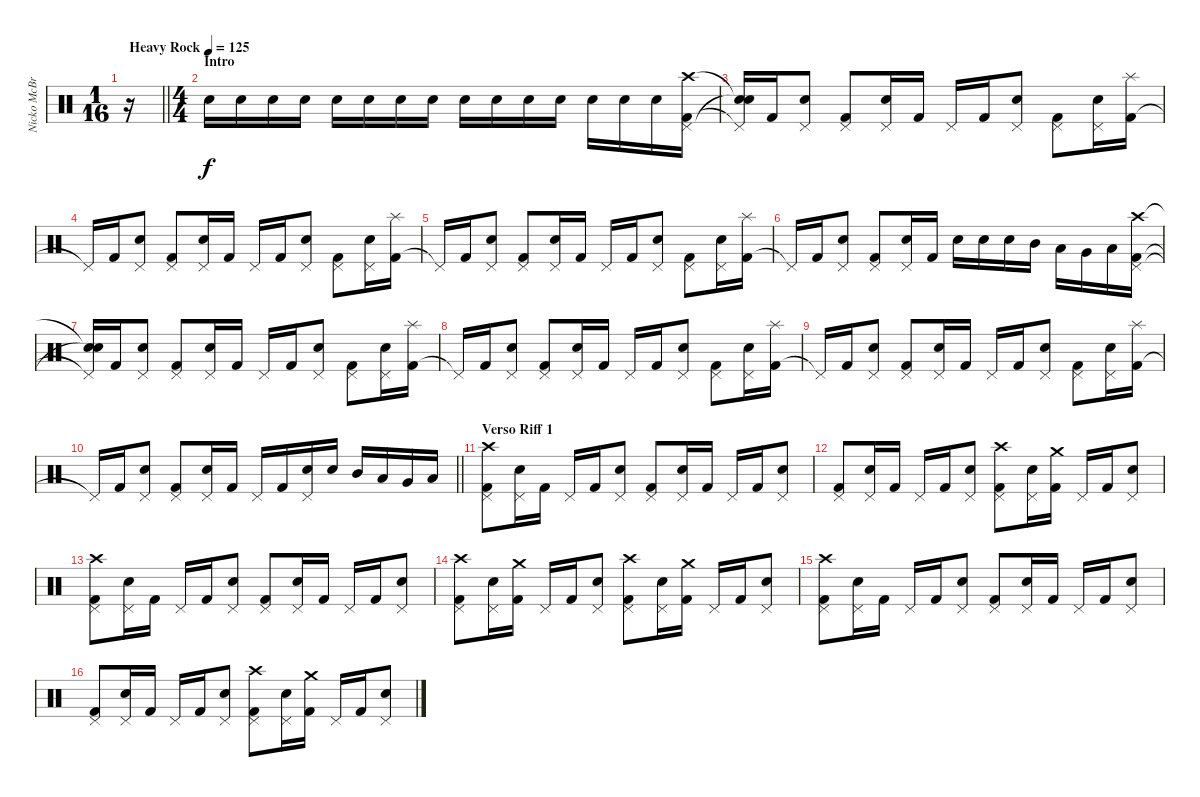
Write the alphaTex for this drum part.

\track ("Nicko McBrain" "Nicko McBr") {instrument percussion}
\staff {score}
\articulation defaults
\ts (1 16)
\tempo (125 "Heavy Rock")
\clef neutral
\barLineRight lightlight
\ks c
r.16{dy f} |
\ts (4 4)
\section ("" "Intro")
"Snare (hit) 2".16 "Snare (hit) 2".16 "Snare (hit) 2".16 "Snare (hit) 2".16 "Snare (hit) 2".16 "Snare (hit) 2".16 "Snare (hit) 2".16 "Snare (hit) 2".16 "Snare (hit) 2".16 "Snare (hit) 2".16 "Snare (hit) 2".16 "Snare (hit) 2".16 "Snare (hit) 2".16 "Snare (hit) 2".16 "Snare (hit) 2".16 ("Kick (hit) 2" "Pedal Hi-Hat (hit)" "Crash high (hit)").16 |
("Pedal Hi-Hat (hit)"{t} "Snare (hit)"{t} "Snare (hit)"{t}).16 "Kick (hit) 2".16 ("Snare (hit) 2" "Pedal Hi-Hat (hit)").8 ("Kick (hit) 2" "Pedal Hi-Hat (hit)").8 ("Snare (hit) 2" "Pedal Hi-Hat (hit)").16 "Kick (hit) 2".16 "Pedal Hi-Hat (hit)".16 "Kick (hit) 2".16 ("Snare (hit) 2" "Pedal Hi-Hat (hit)").8 ("Kick (hit) 2" "Pedal Hi-Hat (hit)").8 ("Snare (hit) 2" "Pedal Hi-Hat (hit)").16 ("Kick (hit) 2" "Splash (hit)").16 |
"Pedal Hi-Hat (hit)"{t}.16 "Kick (hit) 2".16 ("Snare (hit) 2" "Pedal Hi-Hat (hit)").8 ("Kick (hit) 2" "Pedal Hi-Hat (hit)").8 ("Snare (hit) 2" "Pedal Hi-Hat (hit)").16 "Kick (hit) 2".16 "Pedal Hi-Hat (hit)".16 "Kick (hit) 2".16 ("Snare (hit) 2" "Pedal Hi-Hat (hit)").8 ("Kick (hit) 2" "Pedal Hi-Hat (hit)").8 ("Snare (hit) 2" "Pedal Hi-Hat (hit)").16 ("Kick (hit) 2" "Splash (hit)").16 |
"Pedal Hi-Hat (hit)"{t}.16 "Kick (hit) 2".16 ("Snare (hit) 2" "Pedal Hi-Hat (hit)").8 ("Kick (hit) 2" "Pedal Hi-Hat (hit)").8 ("Snare (hit) 2" "Pedal Hi-Hat (hit)").16 "Kick (hit) 2".16 "Pedal Hi-Hat (hit)".16 "Kick (hit) 2".16 ("Snare (hit) 2" "Pedal Hi-Hat (hit)").8 ("Kick (hit) 2" "Pedal Hi-Hat (hit)").8 ("Snare (hit) 2" "Pedal Hi-Hat (hit)").16 ("Kick (hit) 2" "Splash (hit)").16 |
"Pedal Hi-Hat (hit)"{t}.16 "Kick (hit) 2".16 ("Snare (hit) 2" "Pedal Hi-Hat (hit)").8 ("Kick (hit) 2" "Pedal Hi-Hat (hit)").8 ("Snare (hit) 2" "Pedal Hi-Hat (hit)").16 "Kick (hit) 2".16 "Snare (hit) 2".16 "Snare (hit) 2".16 "Snare (hit) 2".16 "Mid Tom (hit)".16 "Low Tom (hit)".16 "Very Low Tom (hit)".16 "Low Floor Tom (hit)".16 ("Kick (hit) 2" "Pedal Hi-Hat (hit)" "Crash high (hit)").16 |
("Pedal Hi-Hat (hit)"{t} "Snare (hit)"{t} "Snare (hit)"{t}).16 "Kick (hit) 2".16 ("Snare (hit) 2" "Pedal Hi-Hat (hit)").8 ("Kick (hit) 2" "Pedal Hi-Hat (hit)").8 ("Snare (hit) 2" "Pedal Hi-Hat (hit)").16 "Kick (hit) 2".16 "Pedal Hi-Hat (hit)".16 "Kick (hit) 2".16 ("Snare (hit) 2" "Pedal Hi-Hat (hit)").8 ("Kick (hit) 2" "Pedal Hi-Hat (hit)").8 ("Snare (hit) 2" "Pedal Hi-Hat (hit)").16 ("Kick (hit) 2" "Splash (hit)").16 |
"Pedal Hi-Hat (hit)"{t}.16 "Kick (hit) 2".16 ("Snare (hit) 2" "Pedal Hi-Hat (hit)").8 ("Kick (hit) 2" "Pedal Hi-Hat (hit)").8 ("Snare (hit) 2" "Pedal Hi-Hat (hit)").16 "Kick (hit) 2".16 "Pedal Hi-Hat (hit)".16 "Kick (hit) 2".16 ("Snare (hit) 2" "Pedal Hi-Hat (hit)").8 ("Kick (hit) 2" "Pedal Hi-Hat (hit)").8 ("Snare (hit) 2" "Pedal Hi-Hat (hit)").16 ("Kick (hit) 2" "Splash (hit)").16 |
"Pedal Hi-Hat (hit)"{t}.16 "Kick (hit) 2".16 ("Snare (hit) 2" "Pedal Hi-Hat (hit)").8 ("Kick (hit) 2" "Pedal Hi-Hat (hit)").8 ("Snare (hit) 2" "Pedal Hi-Hat (hit)").16 "Kick (hit) 2".16 "Pedal Hi-Hat (hit)".16 "Kick (hit) 2".16 ("Snare (hit) 2" "Pedal Hi-Hat (hit)").8 ("Kick (hit) 2" "Pedal Hi-Hat (hit)").8 ("Snare (hit) 2" "Pedal Hi-Hat (hit)").16 ("Kick (hit) 2" "Splash (hit)").16 |
\barLineRight lightlight "Pedal Hi-Hat (hit)"{t}.16 "Kick (hit) 2".16
("Snare (hit) 2" "Pedal Hi-Hat (hit)").8 ("Kick (hit) 2" "Pedal Hi-Hat (hit)").8 ("Snare (hit) 2" "Pedal Hi-Hat (hit)").16 "Kick (hit) 2".16 "Pedal Hi-Hat (hit)".16 "Kick (hit) 2".16 ("Snare (hit) 2" "Pedal Hi-Hat (hit)").16 "Snare (hit) 2".16 "Mid Tom (hit)".16 "Low Tom (hit)".16 "Very Low Tom (hit)".16 "Low Floor Tom (hit)".16 |
\section ("" "Verso Riff 1")
("Kick (hit) 2" "Pedal Hi-Hat (hit)" "Crash high (hit)").8 ("Snare (hit) 2" "Pedal Hi-Hat (hit)").16 "Kick (hit) 2".16 "Pedal Hi-Hat (hit)".16 "Kick (hit) 2".16 ("Snare (hit) 2" "Pedal Hi-Hat (hit)").8 ("Kick (hit) 2" "Pedal Hi-Hat (hit)").8 ("Snare (hit) 2" "Pedal Hi-Hat (hit)").16 "Kick (hit) 2".16 "Pedal Hi-Hat (hit)".16 "Kick (hit) 2".16 ("Snare (hit) 2" "Pedal Hi-Hat (hit)").8 |
("Kick (hit) 2" "Pedal Hi-Hat (hit)").8 ("Snare (hit) 2" "Pedal Hi-Hat (hit)").16 "Kick (hit) 2".16 "Pedal Hi-Hat (hit)".16 "Kick (hit) 2".16 ("Snare (hit) 2" "Pedal Hi-Hat (hit)").8 ("Kick (hit) 2" "Pedal Hi-Hat (hit)" "Crash high (hit)").8 ("Snare (hit) 2" "Pedal Hi-Hat (hit)").16 ("Kick (hit) 2" "Crash medium (hit)").16 "Pedal Hi-Hat (hit)".16 "Kick (hit) 2".16 ("Snare (hit) 2" "Pedal Hi-Hat (hit)").8 |
("Kick (hit) 2" "Pedal Hi-Hat (hit)" "Crash high (hit)").8 ("Snare (hit) 2" "Pedal Hi-Hat (hit)").16 "Kick (hit) 2".16 "Pedal Hi-Hat (hit)".16 "Kick (hit) 2".16 ("Snare (hit) 2" "Pedal Hi-Hat (hit)").8 ("Kick (hit) 2" "Pedal Hi-Hat (hit)").8 ("Snare (hit) 2" "Pedal Hi-Hat (hit)").16 "Kick (hit) 2".16 "Pedal Hi-Hat (hit)".16 "Kick (hit) 2".16 ("Snare (hit) 2" "Pedal Hi-Hat (hit)").8 |
("Kick (hit) 2" "Pedal Hi-Hat (hit)" "Crash high (hit)").8 ("Snare (hit) 2" "Pedal Hi-Hat (hit)").16 ("Kick (hit) 2" "Crash medium (hit)").16 "Pedal Hi-Hat (hit)".16 "Kick (hit) 2".16 ("Snare (hit) 2" "Pedal Hi-Hat (hit)").8 ("Kick (hit) 2" "Pedal Hi-Hat (hit)" "Crash high (hit)").8 ("Snare (hit) 2" "Pedal Hi-Hat (hit)").16 ("Kick (hit) 2" "Crash medium (hit)").16 "Pedal Hi-Hat (hit)".16 "Kick (hit) 2".16 ("Snare (hit) 2" "Pedal Hi-Hat (hit)").8 |
("Kick (hit) 2" "Pedal Hi-Hat (hit)" "Crash high (hit)").8 ("Snare (hit) 2" "Pedal Hi-Hat (hit)").16 "Kick (hit) 2".16 "Pedal Hi-Hat (hit)".16 "Kick (hit) 2".16 ("Snare (hit) 2" "Pedal Hi-Hat (hit)").8 ("Kick (hit) 2" "Pedal Hi-Hat (hit)").8 ("Snare (hit) 2" "Pedal Hi-Hat (hit)").16 "Kick (hit) 2".16 "Pedal Hi-Hat (hit)".16 "Kick (hit) 2".16 ("Snare (hit) 2" "Pedal Hi-Hat (hit)").8 |
("Kick (hit) 2" "Pedal Hi-Hat (hit)").8 ("Snare (hit) 2" "Pedal Hi-Hat (hit)").16 "Kick (hit) 2".16 "Pedal Hi-Hat (hit)".16 "Kick (hit) 2".16 ("Snare (hit) 2" "Pedal Hi-Hat (hit)").8 ("Kick (hit) 2" "Pedal Hi-Hat (hit)" "Crash high (hit)").8 ("Snare (hit) 2" "Pedal Hi-Hat (hit)").16 ("Kick (hit) 2" "Crash medium (hit)").16 "Pedal Hi-Hat (hit)".16 "Kick (hit) 2".16 ("Snare (hit) 2" "Pedal Hi-Hat (hit)").8
